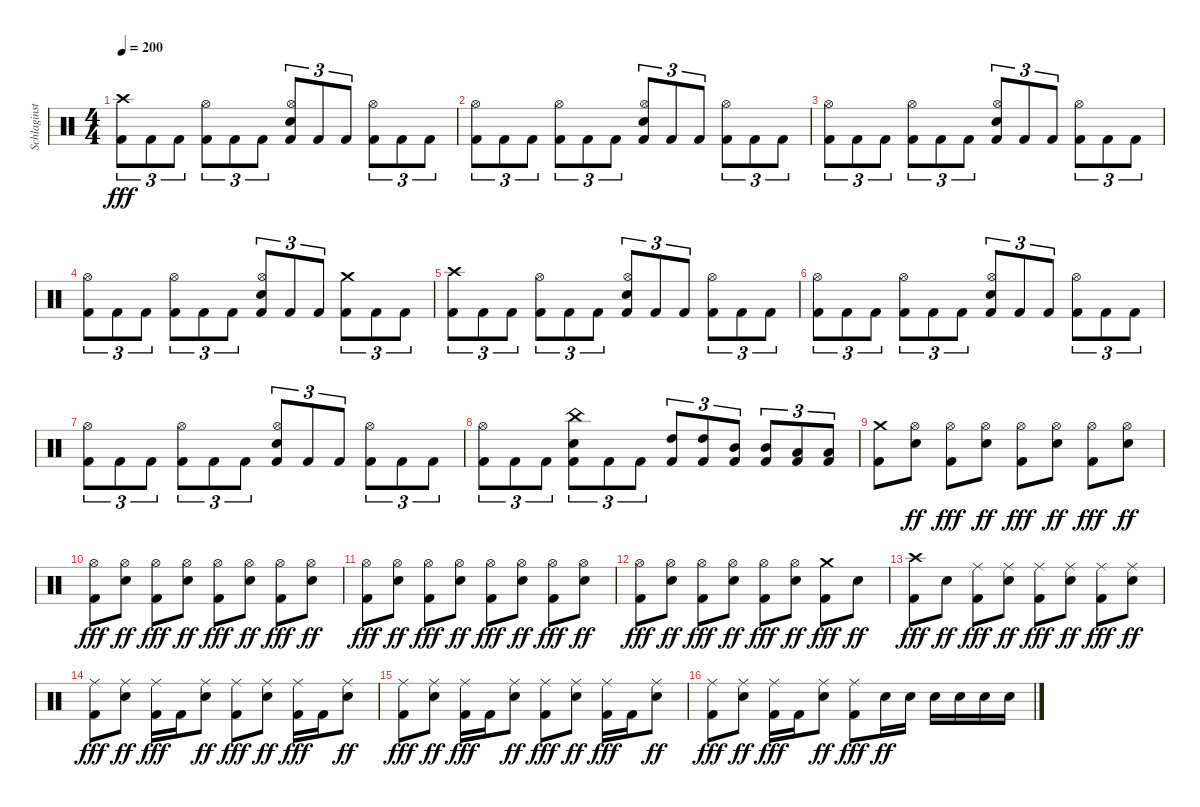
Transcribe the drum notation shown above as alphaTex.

\track ("Schlaginstrumente - Auswahl" "Schlaginst") {instrument percussion}
\staff {score}
\articulation defaults
\ts (4 4)
\tempo 200
\clef neutral
\ks c
("Crash high (hit)" "Kick (hit) 2").8{tu (3 2) dy fff} "Kick (hit) 2".8{tu (3 2)} "Kick (hit) 2".8{tu (3 2)} ("Hi-Hat (open)" "Kick (hit) 2").8{tu (3 2)} "Kick (hit) 2".8{tu (3 2)} "Kick (hit) 2".8{tu (3 2)} ("Hi-Hat (open)" "Snare (hit) 2" "Kick (hit) 2").8{tu (3 2)} "Kick (hit) 2".8{tu (3 2)} "Kick (hit) 2".8{tu (3 2)} ("Hi-Hat (open)" "Kick (hit) 2").8{tu (3 2)} "Kick (hit) 2".8{tu (3 2)} "Kick (hit) 2".8{tu (3 2)} |
("Hi-Hat (open)" "Kick (hit) 2").8{tu (3 2)} "Kick (hit) 2".8{tu (3 2)} "Kick (hit) 2".8{tu (3 2)} ("Hi-Hat (open)" "Kick (hit) 2").8{tu (3 2)} "Kick (hit) 2".8{tu (3 2)} "Kick (hit) 2".8{tu (3 2)} ("Hi-Hat (open)" "Snare (hit) 2" "Kick (hit) 2").8{tu (3 2)} "Kick (hit) 2".8{tu (3 2)} "Kick (hit) 2".8{tu (3 2)} ("Hi-Hat (open)" "Kick (hit) 2").8{tu (3 2)} "Kick (hit) 2".8{tu (3 2)} "Kick (hit) 2".8{tu (3 2)} |
("Hi-Hat (open)" "Kick (hit) 2").8{tu (3 2)} "Kick (hit) 2".8{tu (3 2)} "Kick (hit) 2".8{tu (3 2)} ("Hi-Hat (open)" "Kick (hit) 2").8{tu (3 2)} "Kick (hit) 2".8{tu (3 2)} "Kick (hit) 2".8{tu (3 2)} ("Hi-Hat (open)" "Snare (hit) 2" "Kick (hit) 2").8{tu (3 2)} "Kick (hit) 2".8{tu (3 2)} "Kick (hit) 2".8{tu (3 2)} ("Hi-Hat (open)" "Kick (hit) 2").8{tu (3 2)} "Kick (hit) 2".8{tu (3 2)} "Kick (hit) 2".8{tu (3 2)} |
("Hi-Hat (open)" "Kick (hit) 2").8{tu (3 2)} "Kick (hit) 2".8{tu (3 2)} "Kick (hit) 2".8{tu (3 2)} ("Hi-Hat (open)" "Kick (hit) 2").8{tu (3 2)} "Kick (hit) 2".8{tu (3 2)} "Kick (hit) 2".8{tu (3 2)} ("Hi-Hat (open)" "Snare (hit) 2" "Kick (hit) 2").8{tu (3 2)} "Kick (hit) 2".8{tu (3 2)} "Kick (hit) 2".8{tu (3 2)} ("Crash medium (hit)" "Kick (hit) 2").8{tu (3 2)} "Kick (hit) 2".8{tu (3 2)} "Kick (hit) 2".8{tu (3 2)} |
("Crash high (hit)" "Kick (hit) 2").8{tu (3 2)} "Kick (hit) 2".8{tu (3 2)} "Kick (hit) 2".8{tu (3 2)} ("Hi-Hat (open)" "Kick (hit) 2").8{tu (3 2)} "Kick (hit) 2".8{tu (3 2)} "Kick (hit) 2".8{tu (3 2)} ("Hi-Hat (open)" "Snare (hit) 2" "Kick (hit) 2").8{tu (3 2)} "Kick (hit) 2".8{tu (3 2)} "Kick (hit) 2".8{tu (3 2)} ("Hi-Hat (open)" "Kick (hit) 2").8{tu (3 2)} "Kick (hit) 2".8{tu (3 2)} "Kick (hit) 2".8{tu (3 2)} |
("Hi-Hat (open)" "Kick (hit) 2").8{tu (3 2)} "Kick (hit) 2".8{tu (3 2)} "Kick (hit) 2".8{tu (3 2)} ("Hi-Hat (open)" "Kick (hit) 2").8{tu (3 2)} "Kick (hit) 2".8{tu (3 2)} "Kick (hit) 2".8{tu (3 2)} ("Hi-Hat (open)" "Snare (hit) 2" "Kick (hit) 2").8{tu (3 2)} "Kick (hit) 2".8{tu (3 2)} "Kick (hit) 2".8{tu (3 2)} ("Hi-Hat (open)" "Kick (hit) 2").8{tu (3 2)} "Kick (hit) 2".8{tu (3 2)} "Kick (hit) 2".8{tu (3 2)} |
("Hi-Hat (open)" "Kick (hit) 2").8{tu (3 2)} "Kick (hit) 2".8{tu (3 2)} "Kick (hit) 2".8{tu (3 2)} ("Hi-Hat (open)" "Kick (hit) 2").8{tu (3 2)} "Kick (hit) 2".8{tu (3 2)} "Kick (hit) 2".8{tu (3 2)} ("Hi-Hat (open)" "Snare (hit) 2" "Kick (hit) 2").8{tu (3 2)} "Kick (hit) 2".8{tu (3 2)} "Kick (hit) 2".8{tu (3 2)} ("Hi-Hat (open)" "Kick (hit) 2").8{tu (3 2)} "Kick (hit) 2".8{tu (3 2)} "Kick (hit) 2".8{tu (3 2)} |
("Hi-Hat (open)" "Kick (hit) 2").8{tu (3 2)} "Kick (hit) 2".8{tu (3 2)} "Kick (hit) 2".8{tu (3 2)} ("China (hit)" "Snare (hit) 2" "Kick (hit) 2").8{tu (3 2)} "Kick (hit) 2".8{tu (3 2)} "Kick (hit) 2".8{tu (3 2)} ("High Tom (hit)" "Kick (hit) 2").8{tu (3 2)} ("High Tom (hit)" "Kick (hit) 2").8{tu (3 2)} ("Mid Tom (hit)" "Kick (hit) 2").8{tu (3 2)} ("Mid Tom (hit)" "Kick (hit) 2").8{tu (3 2)} ("Low Tom (hit)" "Kick (hit) 2").8{tu (3 2)} ("Low Tom (hit)" "Kick (hit) 2").8{tu (3 2)} |
("Crash medium (hit)" "Kick (hit) 2").8 ("Hi-Hat (open)" "Snare (hit) 2").8{dy ff} ("Hi-Hat (open)" "Kick (hit) 2").8{dy fff} ("Hi-Hat (open)" "Snare (hit) 2").8{dy ff} ("Hi-Hat (open)" "Kick (hit) 2").8{dy fff} ("Hi-Hat (open)" "Snare (hit) 2").8{dy ff} ("Hi-Hat (open)" "Kick (hit) 2").8{dy fff} ("Hi-Hat (open)" "Snare (hit) 2").8{dy ff} |
("Hi-Hat (open)" "Kick (hit) 2").8{dy fff} ("Hi-Hat (open)" "Snare (hit) 2").8{dy ff} ("Hi-Hat (open)" "Kick (hit) 2").8{dy fff} ("Hi-Hat (open)" "Snare (hit) 2").8{dy ff} ("Hi-Hat (open)" "Kick (hit) 2").8{dy fff} ("Hi-Hat (open)" "Snare (hit) 2").8{dy ff} ("Hi-Hat (open)" "Kick (hit) 2").8{dy fff} ("Hi-Hat (open)" "Snare (hit) 2").8{dy ff} |
("Hi-Hat (open)" "Kick (hit) 2").8{dy fff} ("Hi-Hat (open)" "Snare (hit) 2").8{dy ff} ("Hi-Hat (open)" "Kick (hit) 2").8{dy fff} ("Hi-Hat (open)" "Snare (hit) 2").8{dy ff} ("Hi-Hat (open)" "Kick (hit) 2").8{dy fff} ("Hi-Hat (open)" "Snare (hit) 2").8{dy ff} ("Hi-Hat (open)" "Kick (hit) 2").8{dy fff} ("Hi-Hat (open)" "Snare (hit) 2").8{dy ff} |
("Hi-Hat (open)" "Kick (hit) 2").8{dy fff} ("Hi-Hat (open)" "Snare (hit) 2").8{dy ff} ("Hi-Hat (open)" "Kick (hit) 2").8{dy fff} ("Hi-Hat (open)" "Snare (hit) 2").8{dy ff} ("Hi-Hat (open)" "Kick (hit) 2").8{dy fff} ("Hi-Hat (open)" "Snare (hit) 2").8{dy ff} ("Crash medium (hit)" "Kick (hit) 2").8{dy fff} "Snare (hit) 2".8{dy ff} |
("Crash high (hit)" "Kick (hit) 2").8{dy fff} "Snare (hit) 2".8{dy ff} ("Ride (middle)" "Kick (hit) 2").8{dy fff} ("Ride (middle)" "Snare (hit) 2").8{dy ff} ("Ride (middle)" "Kick (hit) 2").8{dy fff} ("Ride (middle)" "Snare (hit) 2").8{dy ff} ("Ride (middle)" "Kick (hit) 2").8{dy fff} ("Ride (middle)" "Snare (hit) 2").8{dy ff} |
("Ride (middle)" "Kick (hit) 2").8{dy fff} ("Ride (middle)" "Snare (hit) 2").8{dy ff} ("Ride (middle)" "Kick (hit) 2").16{dy fff} "Kick (hit) 2".16 ("Ride (middle)" "Snare (hit) 2").8{dy ff} ("Ride (middle)" "Kick (hit) 2").8{dy fff} ("Ride (middle)" "Snare (hit) 2").8{dy ff} ("Ride (middle)" "Kick (hit) 2").16{dy fff} "Kick (hit) 2".16 ("Ride (middle)" "Snare (hit) 2").8{dy ff} |
("Ride (middle)" "Kick (hit) 2").8{dy fff} ("Ride (middle)" "Snare (hit) 2").8{dy ff} ("Ride (middle)" "Kick (hit) 2").16{dy fff} "Kick (hit) 2".16 ("Ride (middle)" "Snare (hit) 2").8{dy ff} ("Ride (middle)" "Kick (hit) 2").8{dy fff} ("Ride (middle)" "Snare (hit) 2").8{dy ff} ("Ride (middle)" "Kick (hit) 2").16{dy fff} "Kick (hit) 2".16 ("Ride (middle)" "Snare (hit) 2").8{dy ff} |
("Ride (middle)" "Kick (hit) 2").8{dy fff} ("Ride (middle)" "Snare (hit) 2").8{dy ff} ("Ride (middle)" "Kick (hit) 2").16{dy fff} "Kick (hit) 2".16 ("Ride (middle)" "Snare (hit) 2").8{dy ff} ("Ride (middle)" "Kick (hit) 2").8{dy fff} "Snare (hit) 2".16{dy ff} "Snare (hit) 2".16 "Snare (hit) 2".16 "Snare (hit) 2".16 "Snare (hit) 2".16 "Snare (hit) 2".16
